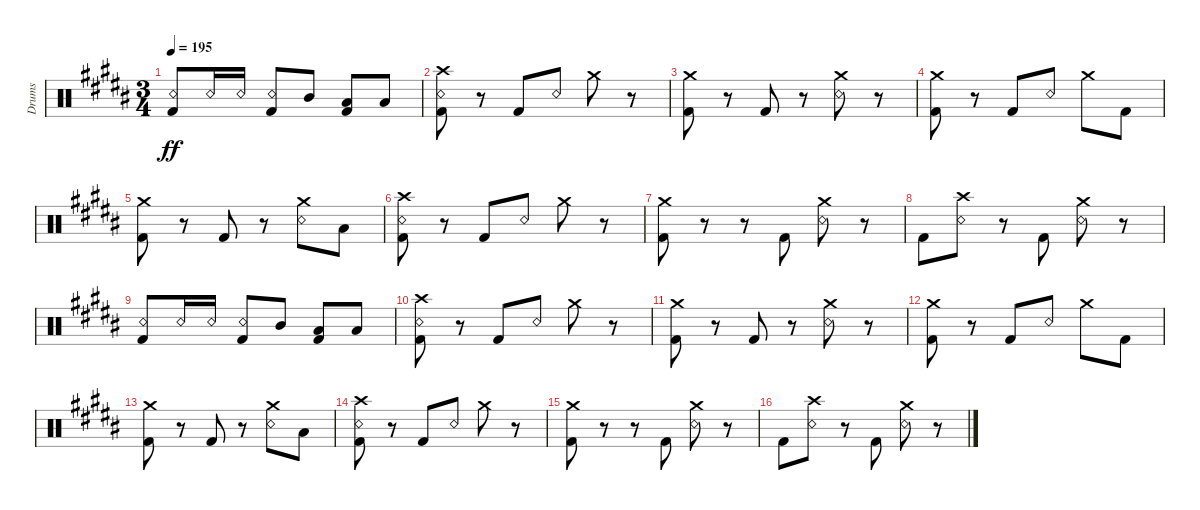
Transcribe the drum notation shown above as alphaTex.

\bracketExtendMode groupsimilarinstruments
\otherSystemsTrackNameOrientation horizontal
\track ("Drumkit" "Drums") {instrument percussion}
\staff {score}
\articulation defaults
\ts (3 4)
\tempo 195
\clef neutral
\ks b
("Snare (rim shot)"{acc bb} "Kick (hit) 2"{acc bb}).8{dy ff beam Up} "Snare (rim shot)"{acc bb}.16{beam Up} "Snare (rim shot)"{acc bb}.16{beam Up} ("Snare (rim shot)"{acc bb} "Kick (hit) 2"{acc bb}).8{beam Up} "Mid Tom (hit)"{acc bb}.8{beam Up} ("Low Tom (hit)"{acc bb} "Kick (hit) 2"{acc bb}).8{beam Up} "Low Tom (hit)"{acc bb}.8{beam Up} |
("Crash high (hit)"{acc bb} "Snare (rim shot)"{acc bb} "Kick (hit) 2"{acc bb}).8{beam Down} r.8{beam Down} "Kick (hit) 2"{acc bb}.8{beam Up} "Snare (rim shot)"{acc bb}.8{beam Up} "Crash medium (hit)"{acc bb}.8{beam Down} r.8{beam Down} |
("Crash medium (hit)"{acc bb} "Kick (hit) 2"{acc bb}).8{beam Down} r.8{beam Down} "Kick (hit) 2"{acc bb}.8{beam Up} r.8{beam Up} ("Crash medium (hit)"{acc bb} "Snare (rim shot)"{acc bb}).8{beam Down} r.8{beam Down} |
("Crash medium (hit)"{acc bb} "Kick (hit) 2"{acc bb}).8{beam Down} r.8{beam Down} "Kick (hit) 2"{acc bb}.8{beam Up} "Snare (rim shot)"{acc bb}.8{beam Up} "Crash medium (hit)"{acc bb}.8{beam Down} "Kick (hit) 2"{acc bb}.8{beam Down} |
("Crash medium (hit)"{acc bb} "Kick (hit) 2"{acc bb}).8{beam Down} r.8{beam Down} "Kick (hit) 2"{acc bb}.8{beam Up} r.8{beam Up} ("Crash medium (hit)"{acc bb} "Snare (rim shot)"{acc bb}).8{beam Down} "Low Tom (hit)"{acc bb}.8{beam Down} |
("Crash high (hit)"{acc bb} "Snare (rim shot)"{acc bb} "Kick (hit) 2"{acc bb}).8{beam Down} r.8{beam Down} "Kick (hit) 2"{acc bb}.8{beam Up} "Snare (rim shot)"{acc bb}.8{beam Up} "Crash medium (hit)"{acc bb}.8{beam Down} r.8{beam Down} |
("Crash medium (hit)"{acc bb} "Kick (hit) 2"{acc bb}).8{beam Down} r.8{beam Down} r.8{beam Down} "Kick (hit) 2"{acc bb}.8{beam Up} ("Snare (rim shot)"{acc bb} "Crash medium (hit)"{acc bb}).8{beam Down} r.8{beam Down} |
"Kick (hit) 2"{acc bb}.8{beam Down} ("Snare (rim shot)"{acc bb} "Crash high (hit)"{acc bb}).8{beam Down} r.8{beam Down} "Kick (hit) 2"{acc bb}.8{beam Up} ("Snare (rim shot)"{acc bb} "Crash medium (hit)"{acc bb}).8{beam Down} r.8{beam Down} |
("Snare (rim shot)"{acc bb} "Kick (hit) 2"{acc bb}).8{beam Up} "Snare (rim shot)"{acc bb}.16{beam Up} "Snare (rim shot)"{acc bb}.16{beam Up} ("Snare (rim shot)"{acc bb} "Kick (hit) 2"{acc bb}).8{beam Up} "Mid Tom (hit)"{acc bb}.8{beam Up} ("Low Tom (hit)"{acc bb} "Kick (hit) 2"{acc bb}).8{beam Up} "Low Tom (hit)"{acc bb}.8{beam Up} |
("Crash high (hit)"{acc bb} "Snare (rim shot)"{acc bb} "Kick (hit) 2"{acc bb}).8{beam Down} r.8{beam Down} "Kick (hit) 2"{acc bb}.8{beam Up} "Snare (rim shot)"{acc bb}.8{beam Up} "Crash medium (hit)"{acc bb}.8{beam Down} r.8{beam Down} |
("Crash medium (hit)"{acc bb} "Kick (hit) 2"{acc bb}).8{beam Down} r.8{beam Down} "Kick (hit) 2"{acc bb}.8{beam Up} r.8{beam Up} ("Crash medium (hit)"{acc bb} "Snare (rim shot)"{acc bb}).8{beam Down} r.8{beam Down} |
("Crash medium (hit)"{acc bb} "Kick (hit) 2"{acc bb}).8{beam Down} r.8{beam Down} "Kick (hit) 2"{acc bb}.8{beam Up} "Snare (rim shot)"{acc bb}.8{beam Up} "Crash medium (hit)"{acc bb}.8{beam Down} "Kick (hit) 2"{acc bb}.8{beam Down} |
("Crash medium (hit)"{acc bb} "Kick (hit) 2"{acc bb}).8{beam Down} r.8{beam Down} "Kick (hit) 2"{acc bb}.8{beam Up} r.8{beam Up} ("Crash medium (hit)"{acc bb} "Snare (rim shot)"{acc bb}).8{beam Down} "Low Tom (hit)"{acc bb}.8{beam Down} |
("Crash high (hit)"{acc bb} "Snare (rim shot)"{acc bb} "Kick (hit) 2"{acc bb}).8{beam Down} r.8{beam Down} "Kick (hit) 2"{acc bb}.8{beam Up} "Snare (rim shot)"{acc bb}.8{beam Up} "Crash medium (hit)"{acc bb}.8{beam Down} r.8{beam Down} |
("Crash medium (hit)"{acc bb} "Kick (hit) 2"{acc bb}).8{beam Down} r.8{beam Down} r.8{beam Down} "Kick (hit) 2"{acc bb}.8{beam Up} ("Snare (rim shot)"{acc bb} "Crash medium (hit)"{acc bb}).8{beam Down} r.8{beam Down} |
"Kick (hit) 2"{acc bb}.8{beam Down} ("Snare (rim shot)"{acc bb} "Crash high (hit)"{acc bb}).8{beam Down} r.8{beam Down} "Kick (hit) 2"{acc bb}.8{beam Up} ("Snare (rim shot)"{acc bb} "Crash medium (hit)"{acc bb}).8{beam Down} r.8{beam Down}
